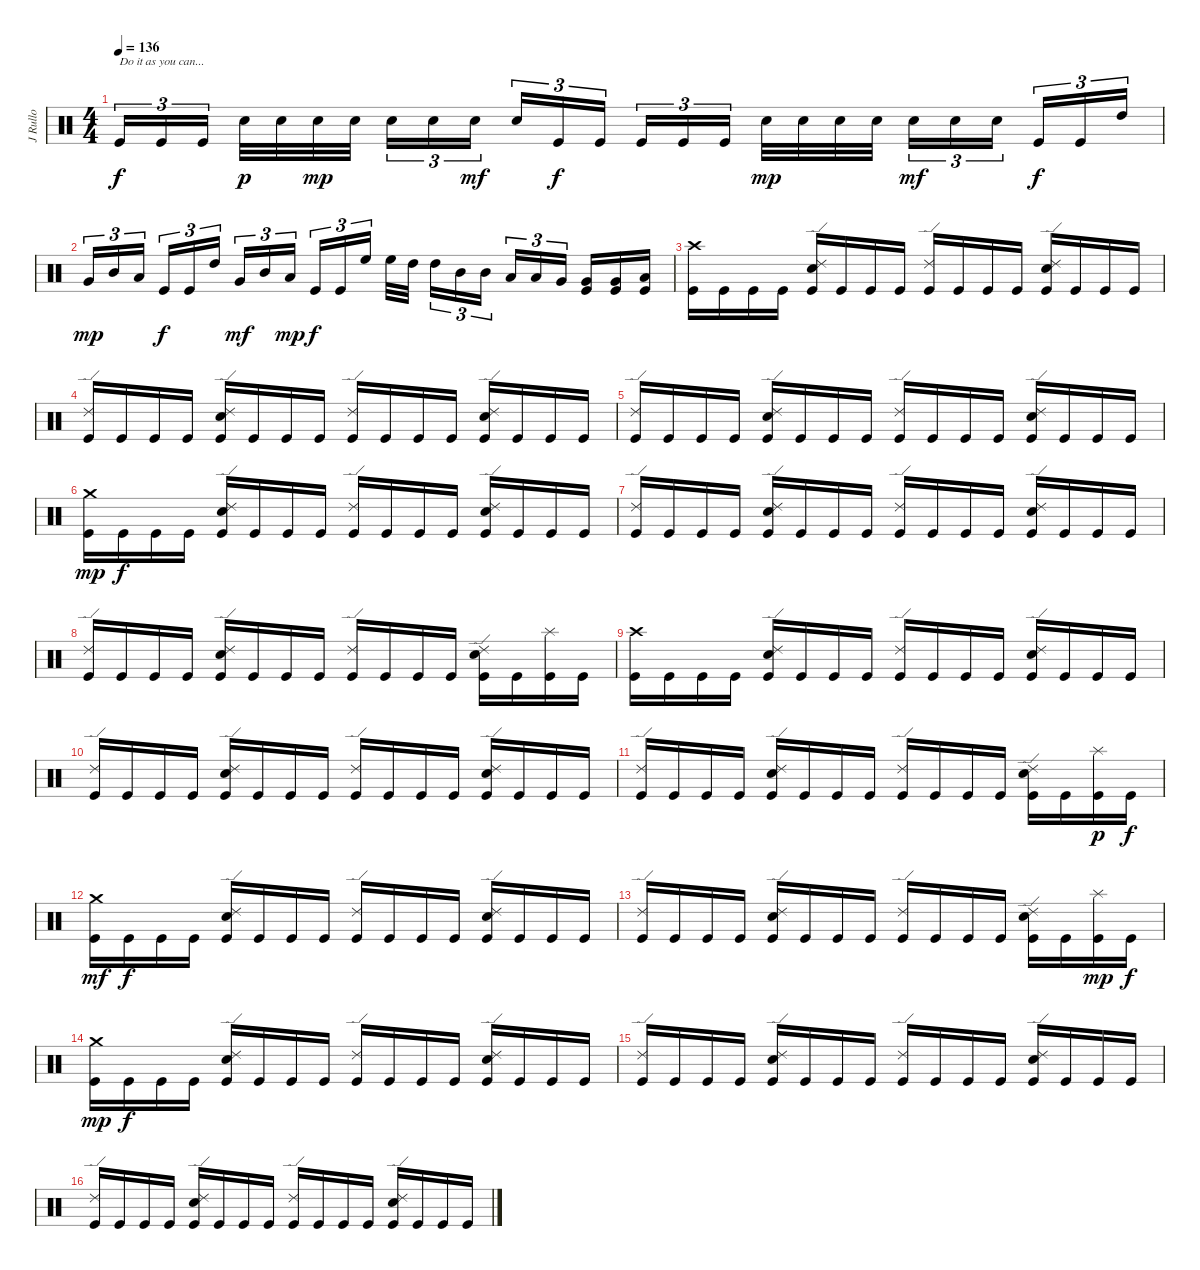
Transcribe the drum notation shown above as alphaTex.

\track ("J Rullo" "J Rullo") {instrument percussion}
\staff {score}
\articulation defaults
\ts (4 4)
\tempo 136
\clef neutral
\ks c "Kick (hit)".16{tu (3 2) txt "Do it as you can..." dy f} "Kick (hit)".16{tu (3 2)} "Kick (hit)".16{tu (3 2)} "Snare (hit) 2".32{dy p} "Snare (hit) 2".32 "Snare (hit) 2".32{dy mp} "Snare (hit) 2".32 "Snare (hit) 2".16{tu (3 2)} "Snare (hit) 2".16{tu (3 2)} "Snare (hit) 2".16{tu (3 2) dy mf} "Snare (hit) 2".16{tu (3 2)} "Kick (hit)".16{tu (3 2) dy f} "Kick (hit)".16{tu (3 2)} "Kick (hit)".16{tu (3 2)} "Kick (hit)".16{tu (3 2)} "Kick (hit)".16{tu (3 2)} "Snare (hit) 2".32{dy mp} "Snare (hit) 2".32 "Snare (hit) 2".32 "Snare (hit) 2".32 "Snare (hit) 2".16{tu (3 2) dy mf} "Snare (hit) 2".16{tu (3 2)} "Snare (hit) 2".16{tu (3 2)} "Kick (hit)".16{tu (3 2) dy f} "Kick (hit)".16{tu (3 2)} "High Tom (hit)".16{tu (3 2)}
|
"Very Low Tom (hit)".16{tu (3 2) dy mp} "Mid Tom (hit)".16{tu (3 2)} "Low Tom (hit)".16{tu (3 2)} "Kick (hit)".16{tu (3 2) dy f} "Kick (hit)".16{tu (3 2)} "High Tom (hit)".16{tu (3 2)} "Very Low Tom (hit)".16{tu (3 2) dy mf} "Mid Tom (hit)".16{tu (3 2)} "Low Tom (hit)".16{tu (3 2) dy mp} "Kick (hit)".16{tu (3 2) dy f} "Kick (hit)".16{tu (3 2)} "High Floor Tom (hit)".16{tu (3 2)} "High Floor Tom (hit)".32 "High Tom (hit)".32 "High Tom (hit)".16{tu (3 2)} "Mid Tom (hit)".16{tu (3 2)} "Mid Tom (hit)".16{tu (3 2)} "Low Tom (hit)".16{tu (3 2)} "Low Tom (hit)".16{tu (3 2)} "Very Low Tom (hit)".16{tu (3 2)} ("Very Low Tom (hit)" "Kick (hit)").16 ("Very Low Tom (hit)" "Kick (hit)").16 ("Low Floor Tom (hit)" "Kick (hit)").16 |
("Crash high (hit)" "Kick (hit)").16 "Kick (hit)".16 "Kick (hit)".16 "Kick (hit)".16 ("Ride (edge) 2" "Electric Snare (hit)" "Kick (hit)").16 "Kick (hit)".16 "Kick (hit)".16 "Kick (hit)".16 ("Ride (edge) 2" "Kick (hit)").16 "Kick (hit)".16 "Kick (hit)".16 "Kick (hit)".16 ("Ride (edge) 2" "Electric Snare (hit)" "Kick (hit)").16 "Kick (hit)".16 "Kick (hit)".16 "Kick (hit)".16 |
("Ride (edge) 2" "Kick (hit)").16 "Kick (hit)".16 "Kick (hit)".16 "Kick (hit)".16 ("Ride (edge) 2" "Electric Snare (hit)" "Kick (hit)").16 "Kick (hit)".16 "Kick (hit)".16 "Kick (hit)".16 ("Ride (edge) 2" "Kick (hit)").16 "Kick (hit)".16 "Kick (hit)".16 "Kick (hit)".16 ("Ride (edge) 2" "Electric Snare (hit)" "Kick (hit)").16 "Kick (hit)".16 "Kick (hit)".16 "Kick (hit)".16 |
("Ride (edge) 2" "Kick (hit)").16 "Kick (hit)".16 "Kick (hit)".16 "Kick (hit)".16 ("Ride (edge) 2" "Electric Snare (hit)" "Kick (hit)").16 "Kick (hit)".16 "Kick (hit)".16 "Kick (hit)".16 ("Ride (edge) 2" "Kick (hit)").16 "Kick (hit)".16 "Kick (hit)".16 "Kick (hit)".16 ("Ride (edge) 2" "Electric Snare (hit)" "Kick (hit)").16 "Kick (hit)".16 "Kick (hit)".16 "Kick (hit)".16 |
("Crash medium (hit)" "Kick (hit)").16{dy mp} "Kick (hit)".16{dy f} "Kick (hit)".16 "Kick (hit)".16 ("Ride (edge) 2" "Electric Snare (hit)" "Kick (hit)").16 "Kick (hit)".16 "Kick (hit)".16 "Kick (hit)".16 ("Ride (edge) 2" "Kick (hit)").16 "Kick (hit)".16 "Kick (hit)".16 "Kick (hit)".16 ("Ride (edge) 2" "Electric Snare (hit)" "Kick (hit)").16 "Kick (hit)".16 "Kick (hit)".16 "Kick (hit)".16 |
("Ride (edge) 2" "Kick (hit)").16 "Kick (hit)".16 "Kick (hit)".16 "Kick (hit)".16 ("Ride (edge) 2" "Electric Snare (hit)" "Kick (hit)").16 "Kick (hit)".16 "Kick (hit)".16 "Kick (hit)".16 ("Ride (edge) 2" "Kick (hit)").16 "Kick (hit)".16 "Kick (hit)".16 "Kick (hit)".16 ("Ride (edge) 2" "Electric Snare (hit)" "Kick (hit)").16 "Kick (hit)".16 "Kick (hit)".16 "Kick (hit)".16 |
("Ride (edge) 2" "Kick (hit)").16 "Kick (hit)".16 "Kick (hit)".16 "Kick (hit)".16 ("Ride (edge) 2" "Electric Snare (hit)" "Kick (hit)").16 "Kick (hit)".16 "Kick (hit)".16 "Kick (hit)".16 ("Ride (edge) 2" "Kick (hit)").16 "Kick (hit)".16 "Kick (hit)".16 "Kick (hit)".16 ("Ride (edge) 2" "Electric Snare (hit)" "Kick (hit)").16 "Kick (hit)".16 ("Splash (hit)" "Kick (hit)").16 "Kick (hit)".16 |
("Crash high (hit)" "Kick (hit)").16 "Kick (hit)".16 "Kick (hit)".16 "Kick (hit)".16 ("Ride (edge) 2" "Electric Snare (hit)" "Kick (hit)").16 "Kick (hit)".16 "Kick (hit)".16 "Kick (hit)".16 ("Ride (edge) 2" "Kick (hit)").16 "Kick (hit)".16 "Kick (hit)".16 "Kick (hit)".16 ("Ride (edge) 2" "Electric Snare (hit)" "Kick (hit)").16 "Kick (hit)".16 "Kick (hit)".16 "Kick (hit)".16 |
("Ride (edge) 2" "Kick (hit)").16 "Kick (hit)".16 "Kick (hit)".16 "Kick (hit)".16 ("Ride (edge) 2" "Electric Snare (hit)" "Kick (hit)").16 "Kick (hit)".16 "Kick (hit)".16 "Kick (hit)".16 ("Ride (edge) 2" "Kick (hit)").16 "Kick (hit)".16 "Kick (hit)".16 "Kick (hit)".16 ("Ride (edge) 2" "Electric Snare (hit)" "Kick (hit)").16 "Kick (hit)".16 "Kick (hit)".16 "Kick (hit)".16 |
("Ride (edge) 2" "Kick (hit)").16 "Kick (hit)".16 "Kick (hit)".16 "Kick (hit)".16 ("Ride (edge) 2" "Electric Snare (hit)" "Kick (hit)").16 "Kick (hit)".16 "Kick (hit)".16 "Kick (hit)".16 ("Ride (edge) 2" "Kick (hit)").16 "Kick (hit)".16 "Kick (hit)".16 "Kick (hit)".16 ("Ride (edge) 2" "Electric Snare (hit)" "Kick (hit)").16 "Kick (hit)".16 ("Splash (hit)" "Kick (hit)").16{dy p} "Kick (hit)".16{dy f} |
("Crash medium (hit)" "Kick (hit)").16{dy mf} "Kick (hit)".16{dy f} "Kick (hit)".16 "Kick (hit)".16 ("Ride (edge) 2" "Electric Snare (hit)" "Kick (hit)").16 "Kick (hit)".16 "Kick (hit)".16 "Kick (hit)".16 ("Ride (edge) 2" "Kick (hit)").16 "Kick (hit)".16 "Kick (hit)".16 "Kick (hit)".16 ("Ride (edge) 2" "Electric Snare (hit)" "Kick (hit)").16 "Kick (hit)".16 "Kick (hit)".16 "Kick (hit)".16 |
("Ride (edge) 2" "Kick (hit)").16 "Kick (hit)".16 "Kick (hit)".16 "Kick (hit)".16 ("Ride (edge) 2" "Electric Snare (hit)" "Kick (hit)").16 "Kick (hit)".16 "Kick (hit)".16 "Kick (hit)".16 ("Ride (edge) 2" "Kick (hit)").16 "Kick (hit)".16 "Kick (hit)".16 "Kick (hit)".16 ("Ride (edge) 2" "Electric Snare (hit)" "Kick (hit)").16 "Kick (hit)".16 ("Splash (hit)" "Kick (hit)").16{dy mp} "Kick (hit)".16{dy f} |
("Crash medium (hit)" "Kick (hit)").16{dy mp} "Kick (hit)".16{dy f} "Kick (hit)".16 "Kick (hit)".16 ("Ride (edge) 2" "Electric Snare (hit)" "Kick (hit)").16 "Kick (hit)".16 "Kick (hit)".16 "Kick (hit)".16 ("Ride (edge) 2" "Kick (hit)").16 "Kick (hit)".16 "Kick (hit)".16 "Kick (hit)".16 ("Ride (edge) 2" "Electric Snare (hit)" "Kick (hit)").16 "Kick (hit)".16 "Kick (hit)".16 "Kick (hit)".16 |
("Ride (edge) 2" "Kick (hit)").16 "Kick (hit)".16 "Kick (hit)".16 "Kick (hit)".16 ("Ride (edge) 2" "Electric Snare (hit)" "Kick (hit)").16 "Kick (hit)".16 "Kick (hit)".16 "Kick (hit)".16 ("Ride (edge) 2" "Kick (hit)").16 "Kick (hit)".16 "Kick (hit)".16 "Kick (hit)".16 ("Ride (edge) 2" "Electric Snare (hit)" "Kick (hit)").16 "Kick (hit)".16 "Kick (hit)".16 "Kick (hit)".16 |
("Ride (edge) 2" "Kick (hit)").16 "Kick (hit)".16 "Kick (hit)".16 "Kick (hit)".16 ("Ride (edge) 2" "Electric Snare (hit)" "Kick (hit)").16 "Kick (hit)".16 "Kick (hit)".16 "Kick (hit)".16 ("Ride (edge) 2" "Kick (hit)").16 "Kick (hit)".16 "Kick (hit)".16 "Kick (hit)".16 ("Ride (edge) 2" "Electric Snare (hit)" "Kick (hit)").16 "Kick (hit)".16 "Kick (hit)".16 "Kick (hit)".16
